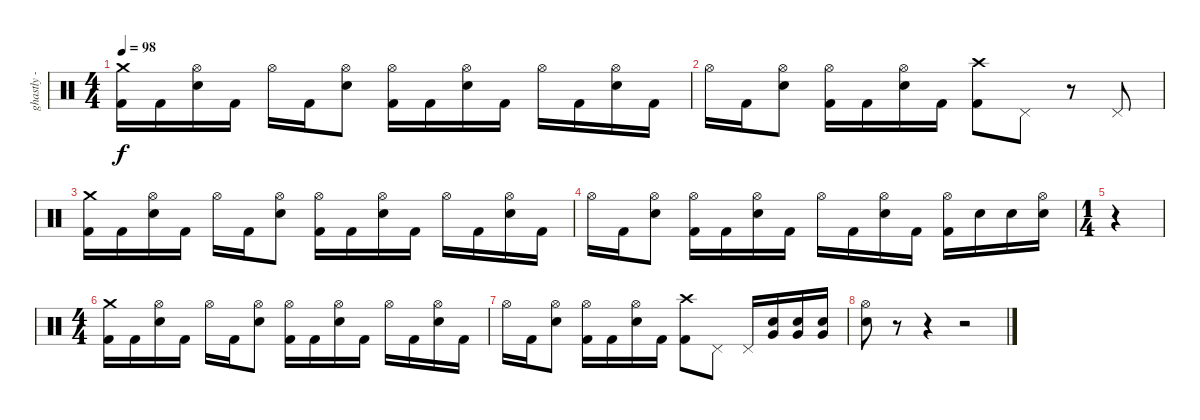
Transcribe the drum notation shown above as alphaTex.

\track ("ghastly - drums" "ghastly - ") {instrument percussion}
\staff {score}
\articulation defaults
\ts (4 4)
\tempo 98
\clef neutral
\ks c
("Crash medium (hit)" "Kick (hit) 2").16{dy f} "Kick (hit) 2".16 ("Hi-Hat (open)" "Electric Snare (hit)").16 "Kick (hit) 2".16 "Hi-Hat (open)".16 "Kick (hit) 2".16 ("Hi-Hat (open)" "Electric Snare (hit)").8 ("Hi-Hat (open)" "Kick (hit) 2").16 "Kick (hit) 2".16 ("Hi-Hat (open)" "Electric Snare (hit)").16 "Kick (hit) 2".16 "Hi-Hat (open)".16 "Kick (hit) 2".16 ("Hi-Hat (open)" "Electric Snare (hit)").16 "Kick (hit) 2".16 |
"Hi-Hat (open)".16 "Kick (hit) 2".16 ("Hi-Hat (open)" "Electric Snare (hit)").8 ("Hi-Hat (open)" "Kick (hit) 2").16 "Kick (hit) 2".16 ("Hi-Hat (open)" "Electric Snare (hit)").16 "Kick (hit) 2".16 ("Crash high (hit)" "Kick (hit) 2").8 "Pedal Hi-Hat (hit)".8 r.8 "Pedal Hi-Hat (hit)".8 |
("Crash medium (hit)" "Kick (hit) 2").16 "Kick (hit) 2".16 ("Hi-Hat (open)" "Electric Snare (hit)").16 "Kick (hit) 2".16 "Hi-Hat (open)".16 "Kick (hit) 2".16 ("Hi-Hat (open)" "Electric Snare (hit)").8 ("Hi-Hat (open)" "Kick (hit) 2").16 "Kick (hit) 2".16 ("Hi-Hat (open)" "Electric Snare (hit)").16 "Kick (hit) 2".16 "Hi-Hat (open)".16 "Kick (hit) 2".16 ("Hi-Hat (open)" "Electric Snare (hit)").16 "Kick (hit) 2".16 |
"Hi-Hat (open)".16 "Kick (hit) 2".16 ("Hi-Hat (open)" "Electric Snare (hit)").8 ("Hi-Hat (open)" "Kick (hit) 2").16 "Kick (hit) 2".16 ("Hi-Hat (open)" "Electric Snare (hit)").16 "Kick (hit) 2".16 "Hi-Hat (open)".16 "Kick (hit) 2".16 ("Hi-Hat (open)" "Electric Snare (hit)").16 "Kick (hit) 2".16 ("Hi-Hat (open)" "Kick (hit) 2").16 "Electric Snare (hit)".16 "Electric Snare (hit)".16 ("Hi-Hat (open)" "Electric Snare (hit)").16 |
\ts (1 4)
r.4 |
\ts (4 4)
("Crash medium (hit)" "Kick (hit) 2").16 "Kick (hit) 2".16 ("Hi-Hat (open)" "Electric Snare (hit)").16 "Kick (hit) 2".16 "Hi-Hat (open)".16 "Kick (hit) 2".16 ("Hi-Hat (open)" "Electric Snare (hit)").8 ("Hi-Hat (open)" "Kick (hit) 2").16 "Kick (hit) 2".16 ("Hi-Hat (open)" "Electric Snare (hit)").16 "Kick (hit) 2".16 "Hi-Hat (open)".16 "Kick (hit) 2".16 ("Hi-Hat (open)" "Electric Snare (hit)").16 "Kick (hit) 2".16 |
"Hi-Hat (open)".16 "Kick (hit) 2".16 ("Hi-Hat (open)" "Electric Snare (hit)").8 ("Hi-Hat (open)" "Kick (hit) 2").16 "Kick (hit) 2".16 ("Hi-Hat (open)" "Electric Snare (hit)").16 "Kick (hit) 2".16 ("Crash high (hit)" "Kick (hit) 2").8 "Pedal Hi-Hat (hit)".8 "Pedal Hi-Hat (hit)".16 ("Electric Snare (hit)" "Very Low Tom (hit)").16 ("Electric Snare (hit)" "Very Low Tom (hit)").16 ("Electric Snare (hit)" "Very Low Tom (hit)").16 |
("Hi-Hat (open)" "Electric Snare (hit)").8 r.8 r.4 r.2
